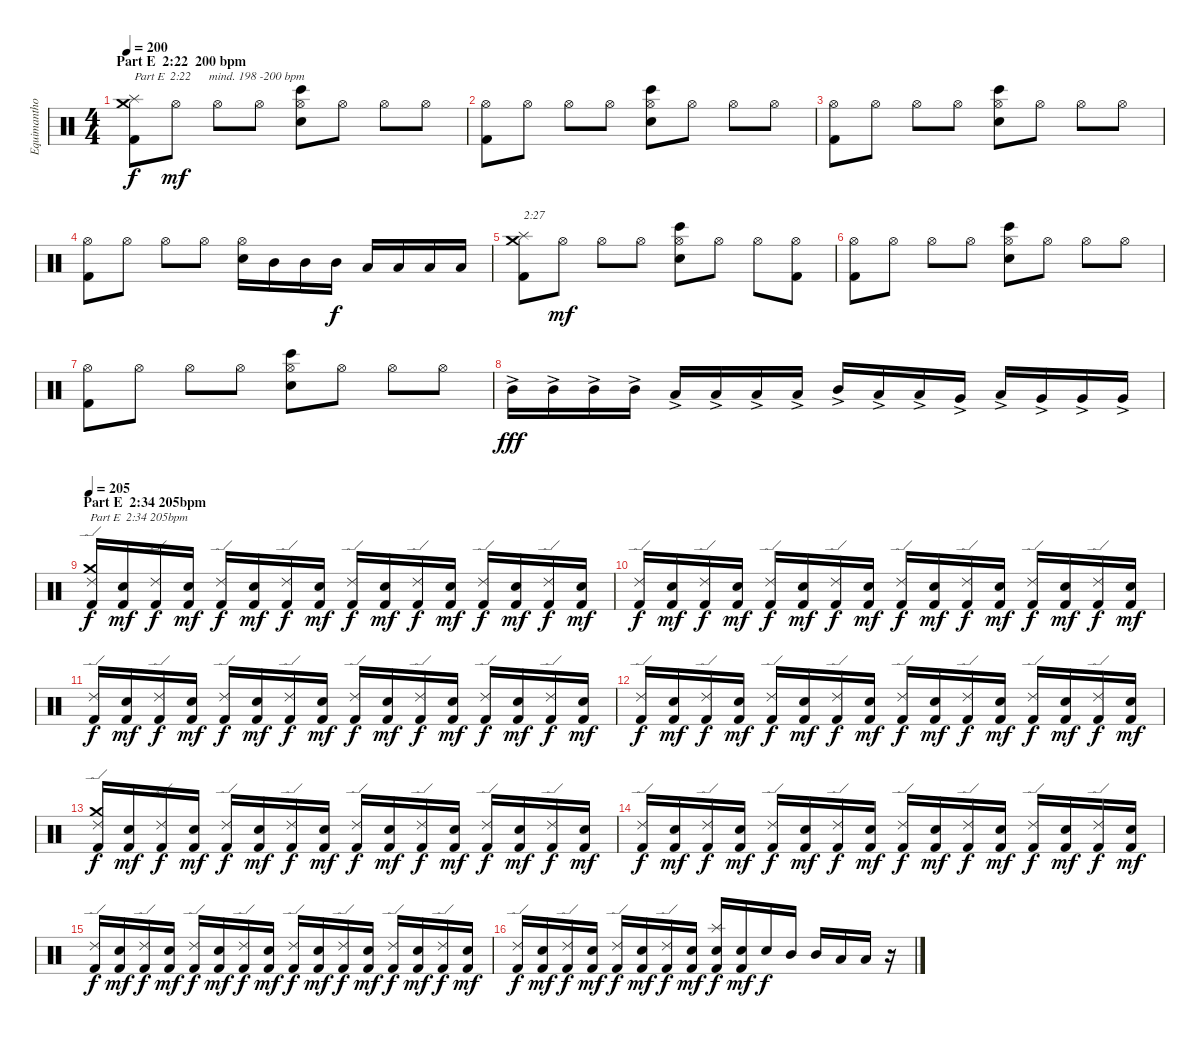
\track ("Equimanthorn" "Equimantho") {instrument percussion}
\staff {score}
\articulation defaults
\ts (4 4)
\section ("" "Part E  2:22  200 bpm")
\tempo 200
\clef neutral
\ks c
("Kick (hit) 2" "Splash (hit)" "Crash medium (hit)").8{txt "Part E  2:22      mind. 198 -200 bpm" dy f} "Hi-Hat (open)".8{dy mf} "Hi-Hat (open)".8 "Hi-Hat (open)".8 ("Bongo High (hit)" "Electric Snare (hit)" "Hi-Hat (open)").8 "Hi-Hat (open)".8 "Hi-Hat (open)".8 "Hi-Hat (open)".8 |
("Kick (hit) 2" "Hi-Hat (open)").8 "Hi-Hat (open)".8 "Hi-Hat (open)".8 "Hi-Hat (open)".8 ("Bongo High (hit)" "Electric Snare (hit)" "Hi-Hat (open)").8 "Hi-Hat (open)".8 "Hi-Hat (open)".8 "Hi-Hat (open)".8 |
("Kick (hit) 2" "Hi-Hat (open)").8 "Hi-Hat (open)".8 "Hi-Hat (open)".8 "Hi-Hat (open)".8 ("Bongo High (hit)" "Electric Snare (hit)" "Hi-Hat (open)").8 "Hi-Hat (open)".8 "Hi-Hat (open)".8 "Hi-Hat (open)".8 |
("Kick (hit) 2" "Hi-Hat (open)").8 "Hi-Hat (open)".8 "Hi-Hat (open)".8 "Hi-Hat (open)".8 ("Electric Snare (hit)" "Hi-Hat (open)").16 "Mid Tom (hit)".16 "Mid Tom (hit)".16 "Mid Tom (hit)".16{dy f} "Low Tom (hit)".16 "Low Tom (hit)".16 "Low Tom (hit)".16 "Low Tom (hit)".16 |
("Kick (hit) 2" "Splash (hit)" "Crash medium (hit)").8{txt "2:27"} "Hi-Hat (open)".8{dy mf} "Hi-Hat (open)".8 "Hi-Hat (open)".8 ("Bongo High (hit)" "Electric Snare (hit)" "Hi-Hat (open)").8 "Hi-Hat (open)".8 "Hi-Hat (open)".8 ("Kick (hit) 2" "Hi-Hat (open)").8 |
("Kick (hit) 2" "Hi-Hat (open)").8 "Hi-Hat (open)".8 "Hi-Hat (open)".8 "Hi-Hat (open)".8 ("Bongo High (hit)" "Electric Snare (hit)" "Hi-Hat (open)").8 "Hi-Hat (open)".8 "Hi-Hat (open)".8 "Hi-Hat (open)".8 |
("Kick (hit) 2" "Hi-Hat (open)").8 "Hi-Hat (open)".8 "Hi-Hat (open)".8 "Hi-Hat (open)".8 ("Bongo High (hit)" "Electric Snare (hit)" "Hi-Hat (open)").8 "Hi-Hat (open)".8 "Hi-Hat (open)".8 "Hi-Hat (open)".8 |
"Mid Tom (hit)"{ac}.16{dy fff} "Mid Tom (hit)"{ac}.16 "Mid Tom (hit)"{ac}.16 "Mid Tom (hit)"{ac}.16 "Low Tom (hit)"{ac}.16 "Low Tom (hit)"{ac}.16 "Low Tom (hit)"{ac}.16 "Low Tom (hit)"{ac}.16 "Mid Tom (hit)"{ac}.16 "Low Tom (hit)"{ac}.16 "Low Tom (hit)"{ac}.16 "Very Low Tom (hit)"{ac}.16 "Low Tom (hit)"{ac}.16 "Very Low Tom (hit)"{ac}.16 "Very Low Tom (hit)"{ac}.16 "Very Low Tom (hit)"{ac}.16 |
\section ("" "Part E  2:34 205bpm")
\tempo 205
("Kick (hit) 2" "Ride (edge) 2" "Crash medium (hit)").16{txt "Part E  2:34 205bpm" dy f} ("Kick (hit) 2" "Electric Snare (hit)").16{dy mf} ("Kick (hit) 2" "Ride (edge) 2").16{dy f} ("Kick (hit) 2" "Electric Snare (hit)").16{dy mf} ("Kick (hit) 2" "Ride (edge) 2").16{dy f} ("Kick (hit) 2" "Electric Snare (hit)").16{dy mf} ("Kick (hit) 2" "Ride (edge) 2").16{dy f} ("Kick (hit) 2" "Electric Snare (hit)").16{dy mf} ("Kick (hit) 2" "Ride (edge) 2").16{dy f} ("Kick (hit) 2" "Electric Snare (hit)").16{dy mf} ("Kick (hit) 2" "Ride (edge) 2").16{dy f} ("Kick (hit) 2" "Electric Snare (hit)").16{dy mf} ("Kick (hit) 2" "Ride (edge) 2").16{dy f} ("Kick (hit) 2" "Electric Snare (hit)").16{dy mf} ("Kick (hit) 2" "Ride (edge) 2").16{dy f} ("Kick (hit) 2" "Electric Snare (hit)").16{dy mf} |
("Kick (hit) 2" "Ride (edge) 2").16{dy f} ("Kick (hit) 2" "Electric Snare (hit)").16{dy mf} ("Kick (hit) 2" "Ride (edge) 2").16{dy f} ("Kick (hit) 2" "Electric Snare (hit)").16{dy mf} ("Kick (hit) 2" "Ride (edge) 2").16{dy f} ("Kick (hit) 2" "Electric Snare (hit)").16{dy mf} ("Kick (hit) 2" "Ride (edge) 2").16{dy f} ("Kick (hit) 2" "Electric Snare (hit)").16{dy mf} ("Kick (hit) 2" "Ride (edge) 2").16{dy f} ("Kick (hit) 2" "Electric Snare (hit)").16{dy mf} ("Kick (hit) 2" "Ride (edge) 2").16{dy f} ("Kick (hit) 2" "Electric Snare (hit)").16{dy mf} ("Kick (hit) 2" "Ride (edge) 2").16{dy f} ("Kick (hit) 2" "Electric Snare (hit)").16{dy mf} ("Kick (hit) 2" "Ride (edge) 2").16{dy f} ("Kick (hit) 2" "Electric Snare (hit)").16{dy mf} |
("Kick (hit) 2" "Ride (edge) 2").16{dy f} ("Kick (hit) 2" "Electric Snare (hit)").16{dy mf} ("Kick (hit) 2" "Ride (edge) 2").16{dy f} ("Kick (hit) 2" "Electric Snare (hit)").16{dy mf} ("Kick (hit) 2" "Ride (edge) 2").16{dy f} ("Kick (hit) 2" "Electric Snare (hit)").16{dy mf} ("Kick (hit) 2" "Ride (edge) 2").16{dy f} ("Kick (hit) 2" "Electric Snare (hit)").16{dy mf} ("Kick (hit) 2" "Ride (edge) 2").16{dy f} ("Kick (hit) 2" "Electric Snare (hit)").16{dy mf} ("Kick (hit) 2" "Ride (edge) 2").16{dy f} ("Kick (hit) 2" "Electric Snare (hit)").16{dy mf} ("Kick (hit) 2" "Ride (edge) 2").16{dy f} ("Kick (hit) 2" "Electric Snare (hit)").16{dy mf} ("Kick (hit) 2" "Ride (edge) 2").16{dy f} ("Kick (hit) 2" "Electric Snare (hit)").16{dy mf} |
("Kick (hit) 2" "Ride (edge) 2").16{dy f} ("Kick (hit) 2" "Electric Snare (hit)").16{dy mf} ("Kick (hit) 2" "Ride (edge) 2").16{dy f} ("Kick (hit) 2" "Electric Snare (hit)").16{dy mf} ("Kick (hit) 2" "Ride (edge) 2").16{dy f} ("Kick (hit) 2" "Electric Snare (hit)").16{dy mf} ("Kick (hit) 2" "Ride (edge) 2").16{dy f} ("Kick (hit) 2" "Electric Snare (hit)").16{dy mf} ("Kick (hit) 2" "Ride (edge) 2").16{dy f} ("Kick (hit) 2" "Electric Snare (hit)").16{dy mf} ("Kick (hit) 2" "Ride (edge) 2").16{dy f} ("Kick (hit) 2" "Electric Snare (hit)").16{dy mf} ("Kick (hit) 2" "Ride (edge) 2").16{dy f} ("Kick (hit) 2" "Electric Snare (hit)").16{dy mf} ("Kick (hit) 2" "Ride (edge) 2").16{dy f} ("Kick (hit) 2" "Electric Snare (hit)").16{dy mf} |
("Kick (hit) 2" "Ride (edge) 2" "Crash medium (hit)").16{dy f} ("Kick (hit) 2" "Electric Snare (hit)").16{dy mf} ("Kick (hit) 2" "Ride (edge) 2").16{dy f} ("Kick (hit) 2" "Electric Snare (hit)").16{dy mf} ("Kick (hit) 2" "Ride (edge) 2").16{dy f} ("Kick (hit) 2" "Electric Snare (hit)").16{dy mf} ("Kick (hit) 2" "Ride (edge) 2").16{dy f} ("Kick (hit) 2" "Electric Snare (hit)").16{dy mf} ("Kick (hit) 2" "Ride (edge) 2").16{dy f} ("Kick (hit) 2" "Electric Snare (hit)").16{dy mf} ("Kick (hit) 2" "Ride (edge) 2").16{dy f} ("Kick (hit) 2" "Electric Snare (hit)").16{dy mf} ("Kick (hit) 2" "Ride (edge) 2").16{dy f} ("Kick (hit) 2" "Electric Snare (hit)").16{dy mf} ("Kick (hit) 2" "Ride (edge) 2").16{dy f} ("Kick (hit) 2" "Electric Snare (hit)").16{dy mf} |
("Kick (hit) 2" "Ride (edge) 2").16{dy f} ("Kick (hit) 2" "Electric Snare (hit)").16{dy mf} ("Kick (hit) 2" "Ride (edge) 2").16{dy f} ("Kick (hit) 2" "Electric Snare (hit)").16{dy mf} ("Kick (hit) 2" "Ride (edge) 2").16{dy f} ("Kick (hit) 2" "Electric Snare (hit)").16{dy mf} ("Kick (hit) 2" "Ride (edge) 2").16{dy f} ("Kick (hit) 2" "Electric Snare (hit)").16{dy mf} ("Kick (hit) 2" "Ride (edge) 2").16{dy f} ("Kick (hit) 2" "Electric Snare (hit)").16{dy mf} ("Kick (hit) 2" "Ride (edge) 2").16{dy f} ("Kick (hit) 2" "Electric Snare (hit)").16{dy mf} ("Kick (hit) 2" "Ride (edge) 2").16{dy f} ("Kick (hit) 2" "Electric Snare (hit)").16{dy mf} ("Kick (hit) 2" "Ride (edge) 2").16{dy f} ("Kick (hit) 2" "Electric Snare (hit)").16{dy mf} |
("Kick (hit) 2" "Ride (edge) 2").16{dy f} ("Kick (hit) 2" "Electric Snare (hit)").16{dy mf} ("Kick (hit) 2" "Ride (edge) 2").16{dy f} ("Kick (hit) 2" "Electric Snare (hit)").16{dy mf} ("Kick (hit) 2" "Ride (edge) 2").16{dy f} ("Kick (hit) 2" "Electric Snare (hit)").16{dy mf} ("Kick (hit) 2" "Ride (edge) 2").16{dy f} ("Kick (hit) 2" "Electric Snare (hit)").16{dy mf} ("Kick (hit) 2" "Ride (edge) 2").16{dy f} ("Kick (hit) 2" "Electric Snare (hit)").16{dy mf} ("Kick (hit) 2" "Ride (edge) 2").16{dy f} ("Kick (hit) 2" "Electric Snare (hit)").16{dy mf} ("Kick (hit) 2" "Ride (edge) 2").16{dy f} ("Kick (hit) 2" "Electric Snare (hit)").16{dy mf} ("Kick (hit) 2" "Ride (edge) 2").16{dy f} ("Kick (hit) 2" "Electric Snare (hit)").16{dy mf} |
("Kick (hit) 2" "Ride (edge) 2").16{dy f} ("Kick (hit) 2" "Electric Snare (hit)").16{dy mf} ("Kick (hit) 2" "Ride (edge) 2").16{dy f} ("Kick (hit) 2" "Electric Snare (hit)").16{dy mf} ("Kick (hit) 2" "Ride (edge) 2").16{dy f} ("Kick (hit) 2" "Electric Snare (hit)").16{dy mf} ("Kick (hit) 2" "Ride (edge) 2").16{dy f} ("Kick (hit) 2" "Electric Snare (hit)").16{dy mf} ("Kick (hit) 2" "Electric Snare (hit)" "Splash (hit)").16{dy f} ("Kick (hit) 2" "Electric Snare (hit)").16{dy mf} "Electric Snare (hit)".16{dy f} "Mid Tom (hit)".16 "Mid Tom (hit)".16 "Low Tom (hit)".16 "Low Tom (hit)".16 r.16
